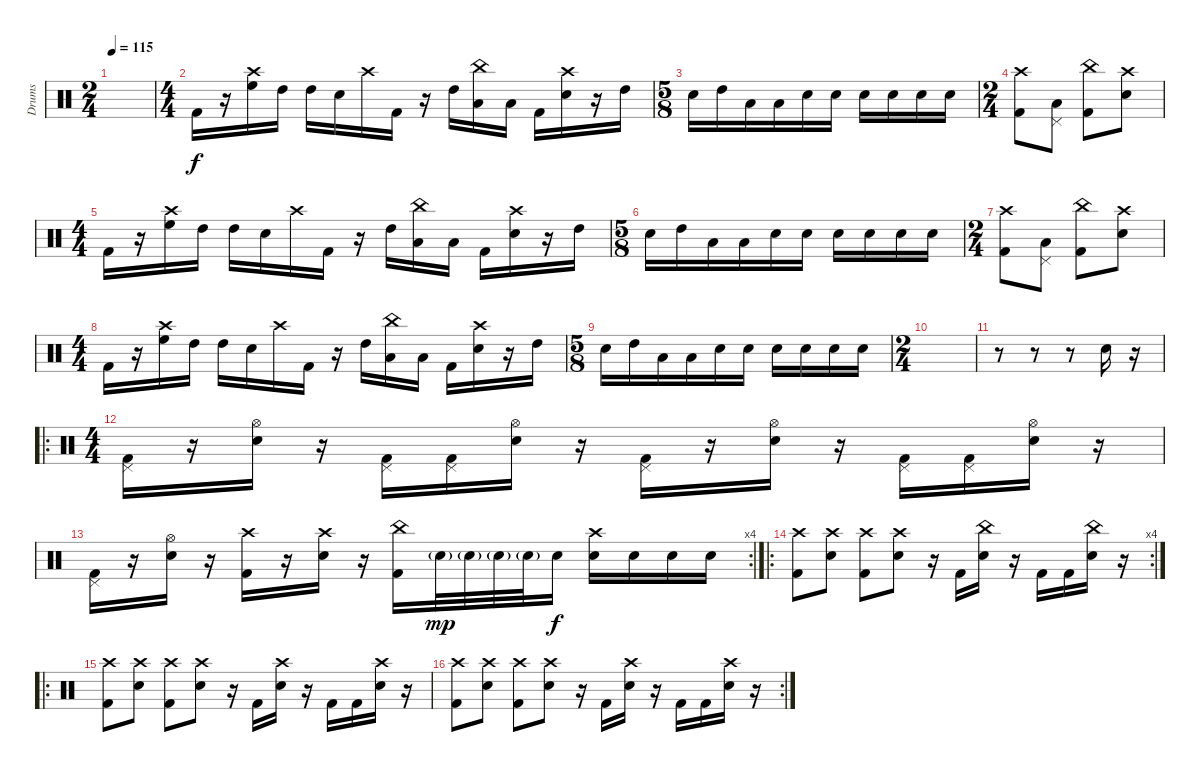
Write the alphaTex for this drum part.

\track ("Drums" "Drums") {instrument percussion}
\staff {score}
\articulation defaults
\ts (2 4)
\tempo 115
\clef neutral
\ks c
|
\ts (4 4)
"Kick (hit) 2".16 r.16 ("Crash high (hit)" "High Floor Tom (hit)").16 "High Tom (hit)".16 "High Tom (hit)".16 "Electric Snare (hit)".16 "Crash high (hit)".16 "Kick (hit) 2".16 r.16 "High Tom (hit)".16 ("China (hit)" "Low Tom (hit)").16 "Low Tom (hit)".16 "Kick (hit) 2".16 ("Crash high (hit)" "Electric Snare (hit)").16 r.16 "High Tom (hit)".16 |
\ts (5 8)
"Electric Snare (hit)".16 "High Tom (hit)".16 "Low Tom (hit)".16 "Low Tom (hit)".16 "Electric Snare (hit)".16 "Electric Snare (hit)".16 "Electric Snare (hit)".16 "Electric Snare (hit)".16 "Electric Snare (hit)".16 "Electric Snare (hit)".16 |
\ts (2 4)
("Crash high (hit)" "Kick (hit) 2").8 ("Pedal Hi-Hat (hit)" "Low Tom (hit)").8 ("China (hit)" "Kick (hit) 2").8 ("Crash high (hit)" "Electric Snare (hit)").8 |
\ts (4 4)
"Kick (hit) 2".16 r.16 ("Crash high (hit)" "High Floor Tom (hit)").16 "High Tom (hit)".16 "High Tom (hit)".16 "Electric Snare (hit)".16 "Crash high (hit)".16 "Kick (hit) 2".16 r.16 "High Tom (hit)".16 ("China (hit)" "Low Tom (hit)").16 "Low Tom (hit)".16 "Kick (hit) 2".16 ("Crash high (hit)" "Electric Snare (hit)").16 r.16 "High Tom (hit)".16 |
\ts (5 8)
"Electric Snare (hit)".16 "High Tom (hit)".16 "Low Tom (hit)".16 "Low Tom (hit)".16 "Electric Snare (hit)".16 "Electric Snare (hit)".16 "Electric Snare (hit)".16 "Electric Snare (hit)".16 "Electric Snare (hit)".16 "Electric Snare (hit)".16 |
\ts (2 4)
("Crash high (hit)" "Kick (hit) 2").8 ("Pedal Hi-Hat (hit)" "Low Tom (hit)").8 ("China (hit)" "Kick (hit) 2").8 ("Crash high (hit)" "Electric Snare (hit)").8 |
\ts (4 4)
"Kick (hit) 2".16 r.16 ("Crash high (hit)" "High Floor Tom (hit)").16 "High Tom (hit)".16 "High Tom (hit)".16 "Electric Snare (hit)".16 "Crash high (hit)".16 "Kick (hit) 2".16 r.16 "High Tom (hit)".16 ("China (hit)" "Low Tom (hit)").16 "Low Tom (hit)".16 "Kick (hit) 2".16 ("Crash high (hit)" "Electric Snare (hit)").16 r.16 "High Tom (hit)".16 |
\ts (5 8)
"Electric Snare (hit)".16 "High Tom (hit)".16 "Low Tom (hit)".16 "Low Tom (hit)".16 "Electric Snare (hit)".16 "Electric Snare (hit)".16 "Electric Snare (hit)".16 "Electric Snare (hit)".16 "Electric Snare (hit)".16 "Electric Snare (hit)".16 |
\ts (2 4)
|
r.8 r.8 r.8 "Electric Snare (hit)".16 r.16 |
\ro
\ts (4 4)
("Pedal Hi-Hat (hit)" "Kick (hit) 2").16 r.16 ("Hi-Hat (open)" "Electric Snare (hit)").16 r.16 ("Pedal Hi-Hat (hit)" "Kick (hit) 2").16 ("Pedal Hi-Hat (hit)" "Kick (hit) 2").16 ("Hi-Hat (open)" "Electric Snare (hit)").16 r.16 ("Pedal Hi-Hat (hit)" "Kick (hit) 2").16 r.16 ("Hi-Hat (open)" "Electric Snare (hit)").16 r.16 ("Pedal Hi-Hat (hit)" "Kick (hit) 2").16 ("Pedal Hi-Hat (hit)" "Kick (hit) 2").16 ("Hi-Hat (open)" "Electric Snare (hit)").16 r.16 |
\rc 4
("Pedal Hi-Hat (hit)" "Kick (hit) 2").16 r.16 ("Hi-Hat (open)" "Electric Snare (hit)").16 r.16 ("Crash high (hit)" "Kick (hit) 2").16 r.16 ("Crash high (hit)" "Electric Snare (hit)").16 r.16 ("China (hit)" "Kick (hit) 2").16 "Electric Snare (hit)"{g}.32{dy mp} "Electric Snare (hit)"{g}.32 "Electric Snare (hit)"{g}.32 "Electric Snare (hit)"{g}.32 "Electric Snare (hit)".16{dy f} ("Crash high (hit)" "Electric Snare (hit)").16 "Electric Snare (hit)".16 "Electric Snare (hit)".16 "Electric Snare (hit)".16 |
\ro
\rc 4
("Crash high (hit)" "Kick (hit) 2").8 ("Crash high (hit)" "Electric Snare (hit)").8 ("Crash high (hit)" "Kick (hit) 2").8 ("Crash high (hit)" "Electric Snare (hit)").8 r.16 "Kick (hit) 2".16 ("China (hit)" "Electric Snare (hit)").16 r.16 "Kick (hit) 2".16 "Kick (hit) 2".16 ("China (hit)" "Electric Snare (hit)").16 r.16 |
\ro
("Crash high (hit)" "Kick (hit) 2").8 ("Crash high (hit)" "Electric Snare (hit)").8 ("Crash high (hit)" "Kick (hit) 2").8 ("Crash high (hit)" "Electric Snare (hit)").8 r.16 "Kick (hit) 2".16 ("Crash high (hit)" "Electric Snare (hit)").16 r.16 "Kick (hit) 2".16 "Kick (hit) 2".16 ("Crash high (hit)" "Electric Snare (hit)").16 r.16 |
\rc 2
("Crash high (hit)" "Kick (hit) 2").8 ("Crash high (hit)" "Electric Snare (hit)").8 ("Crash high (hit)" "Kick (hit) 2").8 ("Crash high (hit)" "Electric Snare (hit)").8 r.16 "Kick (hit) 2".16 ("Crash high (hit)" "Electric Snare (hit)").16 r.16 "Kick (hit) 2".16 "Kick (hit) 2".16 ("Crash high (hit)" "Electric Snare (hit)").16 r.16
